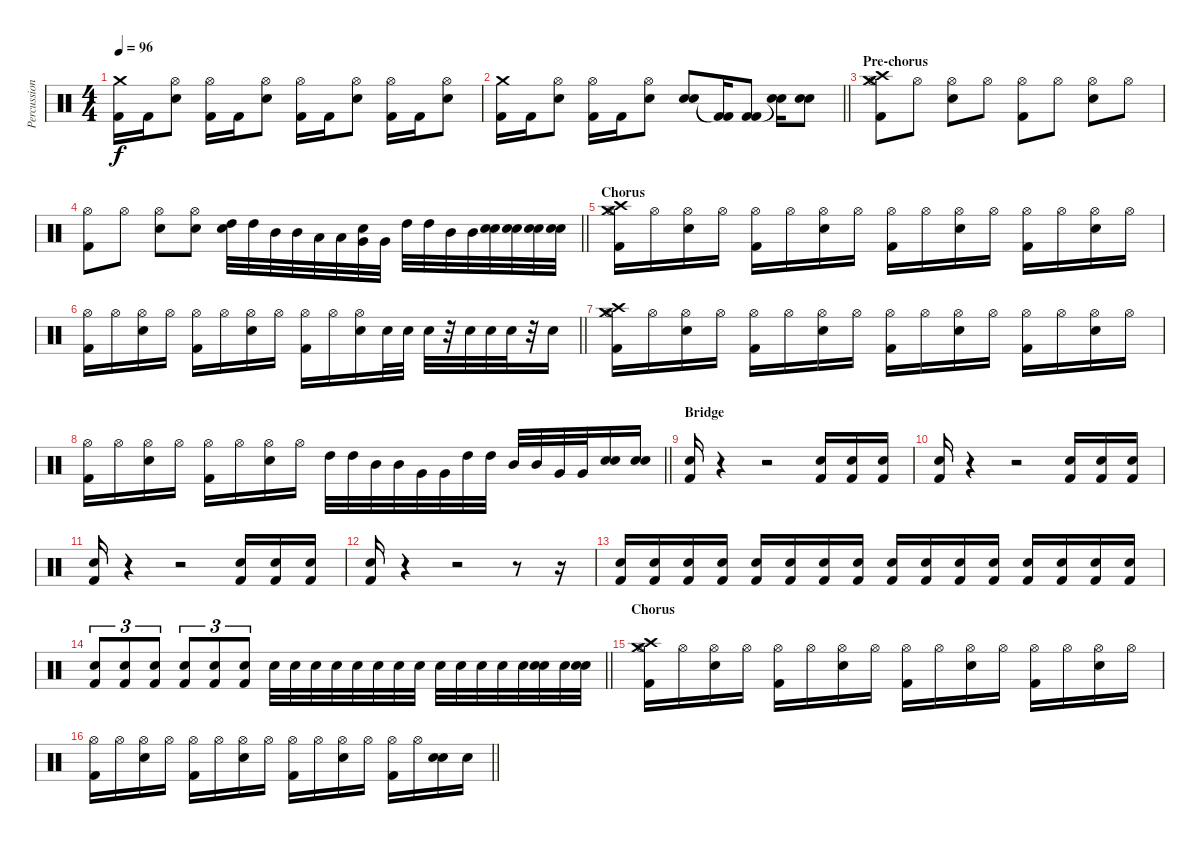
\track ("Percussion" "Percussion") {instrument percussion}
\staff {score}
\articulation defaults
\ts (4 4)
\tempo 96
\clef neutral
\ks c
("Crash medium (hit)" "Kick (hit) 2").16{dy f} "Kick (hit) 2".16 ("Hi-Hat (open)" "Electric Snare (hit)").8 ("Hi-Hat (open)" "Kick (hit) 2").16 "Kick (hit) 2".16 ("Hi-Hat (open)" "Electric Snare (hit)").8 ("Hi-Hat (open)" "Kick (hit) 2").16 "Kick (hit) 2".16 ("Hi-Hat (open)" "Electric Snare (hit)").8 ("Hi-Hat (open)" "Kick (hit) 2").16 "Kick (hit) 2".16 ("Hi-Hat (open)" "Electric Snare (hit)").8 |
\barLineRight lightlight
("Crash medium (hit)" "Kick (hit) 2").16 "Kick (hit) 2".16 ("Hi-Hat (open)" "Electric Snare (hit)").8 ("Hi-Hat (open)" "Kick (hit) 2").16 "Kick (hit) 2".16 ("Hi-Hat (open)" "Electric Snare (hit)").8 ("Electric Snare (hit)" "Electric Snare (hit)").8 ("Kick (hit) 2"{t} "Kick (hit) 2"{t}).16 ("Kick (hit) 2" "Kick (hit) 2").8 ("Electric Snare (hit)"{t} "Electric Snare (hit)"{t}).16 ("Electric Snare (hit)" "Electric Snare (hit)").8 |
\section ("" "Pre-chorus")
("Crash medium (hit)" "Crash high (hit)" "Hi-Hat (open)" "Kick (hit) 2").8 "Hi-Hat (open)".8 ("Hi-Hat (open)" "Electric Snare (hit)").8 "Hi-Hat (open)".8 ("Hi-Hat (open)" "Kick (hit) 2").8 "Hi-Hat (open)".8 ("Hi-Hat (open)" "Electric Snare (hit)").8 "Hi-Hat (open)".8 |
\barLineRight lightlight
("Hi-Hat (open)" "Kick (hit) 2").8 "Hi-Hat (open)".8 ("Hi-Hat (open)" "Electric Snare (hit)").8 ("Hi-Hat (open)" "Electric Snare (hit)").8 ("Electric Snare (hit)" "High Tom (hit)").32 "High Tom (hit)".32 "Mid Tom (hit)".32 "Mid Tom (hit)".32 "Low Tom (hit)".32 "Low Tom (hit)".32 ("Electric Snare (hit)" "Very Low Tom (hit)").32 "Very Low Tom (hit)".32 "High Tom (hit)".32 "High Tom (hit)".32 "Mid Tom (hit)".32 "Mid Tom (hit)".32 ("Electric Snare (hit)" "Electric Snare (hit)").32 ("Electric Snare (hit)" "Electric Snare (hit)").32 ("Electric Snare (hit)" "Electric Snare (hit)").32 ("Electric Snare (hit)" "Electric Snare (hit)").32 |
\section ("" "Chorus")
("Crash medium (hit)" "Crash high (hit)" "Hi-Hat (open)" "Kick (hit) 2").16 "Hi-Hat (open)".16 ("Hi-Hat (open)" "Electric Snare (hit)").16 "Hi-Hat (open)".16 ("Hi-Hat (open)" "Kick (hit) 2").16 "Hi-Hat (open)".16 ("Hi-Hat (open)" "Electric Snare (hit)").16 "Hi-Hat (open)".16 ("Hi-Hat (open)" "Kick (hit) 2").16 "Hi-Hat (open)".16 ("Hi-Hat (open)" "Electric Snare (hit)").16 "Hi-Hat (open)".16 ("Hi-Hat (open)" "Kick (hit) 2").16 "Hi-Hat (open)".16 ("Hi-Hat (open)" "Electric Snare (hit)").16 "Hi-Hat (open)".16 |
\barLineRight lightlight
("Hi-Hat (open)" "Kick (hit) 2").16 "Hi-Hat (open)".16 ("Hi-Hat (open)" "Electric Snare (hit)").16 "Hi-Hat (open)".16 ("Hi-Hat (open)" "Kick (hit) 2").16 "Hi-Hat (open)".16 ("Hi-Hat (open)" "Electric Snare (hit)").16 "Hi-Hat (open)".16 ("Hi-Hat (open)" "Kick (hit) 2").16 "Hi-Hat (open)".16 ("Hi-Hat (open)" "Electric Snare (hit)").16 "Electric Snare (hit)".32 "Electric Snare (hit)".32 "Electric Snare (hit)".32 r.32 "Electric Snare (hit)".32 "Electric Snare (hit)".32 "Electric Snare (hit)".32 r.32 "Electric Snare (hit)".16 |
("Crash medium (hit)" "Crash high (hit)" "Hi-Hat (open)" "Kick (hit) 2").16 "Hi-Hat (open)".16 ("Hi-Hat (open)" "Electric Snare (hit)").16 "Hi-Hat (open)".16 ("Hi-Hat (open)" "Kick (hit) 2").16 "Hi-Hat (open)".16 ("Hi-Hat (open)" "Electric Snare (hit)").16 "Hi-Hat (open)".16 ("Hi-Hat (open)" "Kick (hit) 2").16 "Hi-Hat (open)".16 ("Hi-Hat (open)" "Electric Snare (hit)").16 "Hi-Hat (open)".16 ("Hi-Hat (open)" "Kick (hit) 2").16 "Hi-Hat (open)".16 ("Hi-Hat (open)" "Electric Snare (hit)").16 "Hi-Hat (open)".16 |
\barLineRight lightlight
("Hi-Hat (open)" "Kick (hit) 2").16 "Hi-Hat (open)".16 ("Hi-Hat (open)" "Electric Snare (hit)").16 "Hi-Hat (open)".16 ("Hi-Hat (open)" "Kick (hit) 2").16 "Hi-Hat (open)".16 ("Hi-Hat (open)" "Electric Snare (hit)").16 "Hi-Hat (open)".16 "High Tom (hit)".32 "High Tom (hit)".32 "Mid Tom (hit)".32 "Mid Tom (hit)".32 "Very Low Tom (hit)".32 "Very Low Tom (hit)".32 "High Tom (hit)".32 "High Tom (hit)".32 "Mid Tom (hit)".32 "Mid Tom (hit)".32 "Very Low Tom (hit)".32 "Very Low Tom (hit)".32 ("Electric Snare (hit)" "Electric Snare (hit)").16 ("Electric Snare (hit)" "Electric Snare (hit)").16 |
\section ("" "Bridge")
("Kick (hit) 2" "Electric Snare (hit)").16 r.4 r.2 ("Kick (hit) 2" "Electric Snare (hit)").16 ("Kick (hit) 2" "Electric Snare (hit)").16 ("Kick (hit) 2" "Electric Snare (hit)").16 |
("Kick (hit) 2" "Electric Snare (hit)").16 r.4 r.2 ("Kick (hit) 2" "Electric Snare (hit)").16 ("Kick (hit) 2" "Electric Snare (hit)").16 ("Kick (hit) 2" "Electric Snare (hit)").16 |
("Kick (hit) 2" "Electric Snare (hit)").16 r.4 r.2 ("Kick (hit) 2" "Electric Snare (hit)").16 ("Kick (hit) 2" "Electric Snare (hit)").16 ("Kick (hit) 2" "Electric Snare (hit)").16 |
("Kick (hit) 2" "Electric Snare (hit)").16 r.4 r.2 r.8 r.16 |
("Electric Snare (hit)" "Kick (hit) 2").16 ("Electric Snare (hit)" "Kick (hit) 2").16 ("Electric Snare (hit)" "Kick (hit) 2").16 ("Electric Snare (hit)" "Kick (hit) 2").16 ("Electric Snare (hit)" "Kick (hit) 2").16 ("Electric Snare (hit)" "Kick (hit) 2").16 ("Electric Snare (hit)" "Kick (hit) 2").16 ("Electric Snare (hit)" "Kick (hit) 2").16 ("Electric Snare (hit)" "Kick (hit) 2").16 ("Electric Snare (hit)" "Kick (hit) 2").16 ("Electric Snare (hit)" "Kick (hit) 2").16 ("Electric Snare (hit)" "Kick (hit) 2").16 ("Electric Snare (hit)" "Kick (hit) 2").16 ("Electric Snare (hit)" "Kick (hit) 2").16 ("Electric Snare (hit)" "Kick (hit) 2").16 ("Electric Snare (hit)" "Kick (hit) 2").16 |
\barLineRight lightlight
("Electric Snare (hit)" "Kick (hit) 2").8{tu (3 2)} ("Electric Snare (hit)" "Kick (hit) 2").8{tu (3 2)} ("Electric Snare (hit)" "Kick (hit) 2").8{tu (3 2)} ("Electric Snare (hit)" "Kick (hit) 2").8{tu (3 2)} ("Electric Snare (hit)" "Kick (hit) 2").8{tu (3 2)} ("Electric Snare (hit)" "Kick (hit) 2").8{tu (3 2)} "Electric Snare (hit)".32 "Electric Snare (hit)".32 "Electric Snare (hit)".32 "Electric Snare (hit)".32 "Electric Snare (hit)".32 "Electric Snare (hit)".32 "Electric Snare (hit)".32 "Electric Snare (hit)".32 "Electric Snare (hit)".32 "Electric Snare (hit)".32 "Electric Snare (hit)".32 "Electric Snare (hit)".32 "Electric Snare (hit)".32 ("Electric Snare (hit)" "Electric Snare (hit)").32 "Electric Snare (hit)".32 ("Electric Snare (hit)" "Electric Snare (hit)").32 |
\section ("" "Chorus")
("Crash medium (hit)" "Crash high (hit)" "Hi-Hat (open)" "Kick (hit) 2").16 "Hi-Hat (open)".16 ("Hi-Hat (open)" "Electric Snare (hit)").16 "Hi-Hat (open)".16 ("Hi-Hat (open)" "Kick (hit) 2").16 "Hi-Hat (open)".16 ("Hi-Hat (open)" "Electric Snare (hit)").16 "Hi-Hat (open)".16 ("Hi-Hat (open)" "Kick (hit) 2").16 "Hi-Hat (open)".16 ("Hi-Hat (open)" "Electric Snare (hit)").16 "Hi-Hat (open)".16 ("Hi-Hat (open)" "Kick (hit) 2").16 "Hi-Hat (open)".16 ("Hi-Hat (open)" "Electric Snare (hit)").16 "Hi-Hat (open)".16 |
\barLineRight lightlight
("Hi-Hat (open)" "Kick (hit) 2").16 "Hi-Hat (open)".16 ("Hi-Hat (open)" "Electric Snare (hit)").16 "Hi-Hat (open)".16 ("Hi-Hat (open)" "Kick (hit) 2").16 "Hi-Hat (open)".16 ("Hi-Hat (open)" "Electric Snare (hit)").16 "Hi-Hat (open)".16 ("Hi-Hat (open)" "Kick (hit) 2").16 "Hi-Hat (open)".16 ("Hi-Hat (open)" "Electric Snare (hit)").16 "Hi-Hat (open)".16 ("Hi-Hat (open)" "Kick (hit) 2").16 "Hi-Hat (open)".16 ("Electric Snare (hit)" "Electric Snare (hit)").16 "Electric Snare (hit)".16
